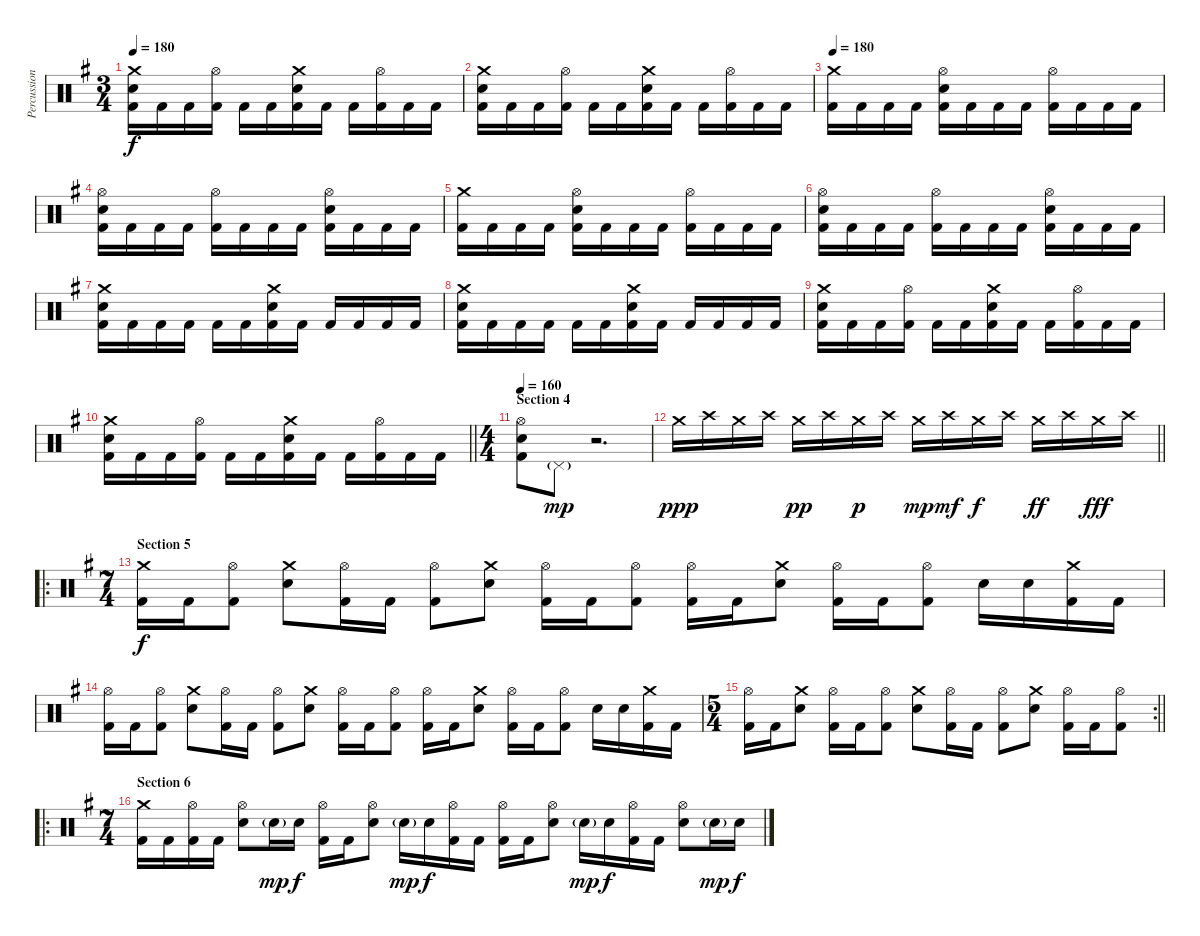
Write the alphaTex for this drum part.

\track ("Percussion" "Percussion") {instrument percussion}
\staff {score}
\articulation defaults
\ts (3 4)
\tempo 180
\clef neutral
\ks eminor
("Crash medium (hit)" "Electric Snare (hit)" "Kick (hit) 2").16{dy f} "Kick (hit) 2".16 "Kick (hit) 2".16 ("Hi-Hat (open)" "Kick (hit) 2").16 "Kick (hit) 2".16 "Kick (hit) 2".16 ("Crash medium (hit)" "Electric Snare (hit)" "Kick (hit) 2").16 "Kick (hit) 2".16 "Kick (hit) 2".16 ("Hi-Hat (open)" "Kick (hit) 2").16 "Kick (hit) 2".16 "Kick (hit) 2".16 |
("Crash medium (hit)" "Electric Snare (hit)" "Kick (hit) 2").16 "Kick (hit) 2".16 "Kick (hit) 2".16 ("Hi-Hat (open)" "Kick (hit) 2").16 "Kick (hit) 2".16 "Kick (hit) 2".16 ("Crash medium (hit)" "Electric Snare (hit)" "Kick (hit) 2").16 "Kick (hit) 2".16 "Kick (hit) 2".16 ("Hi-Hat (open)" "Kick (hit) 2").16 "Kick (hit) 2".16 "Kick (hit) 2".16 |
\tempo 180
("Crash medium (hit)" "Kick (hit) 2").16 "Kick (hit) 2".16 "Kick (hit) 2".16 "Kick (hit) 2".16 ("Hi-Hat (open)" "Electric Snare (hit)" "Kick (hit) 2").16 "Kick (hit) 2".16 "Kick (hit) 2".16 "Kick (hit) 2".16 ("Hi-Hat (open)" "Kick (hit) 2").16 "Kick (hit) 2".16 "Kick (hit) 2".16 "Kick (hit) 2".16 |
("Hi-Hat (open)" "Electric Snare (hit)" "Kick (hit) 2").16 "Kick (hit) 2".16 "Kick (hit) 2".16 "Kick (hit) 2".16 ("Hi-Hat (open)" "Kick (hit) 2").16 "Kick (hit) 2".16 "Kick (hit) 2".16 "Kick (hit) 2".16 ("Hi-Hat (open)" "Electric Snare (hit)" "Kick (hit) 2").16 "Kick (hit) 2".16 "Kick (hit) 2".16 "Kick (hit) 2".16 |
("Crash medium (hit)" "Kick (hit) 2").16 "Kick (hit) 2".16 "Kick (hit) 2".16 "Kick (hit) 2".16 ("Hi-Hat (open)" "Electric Snare (hit)" "Kick (hit) 2").16 "Kick (hit) 2".16 "Kick (hit) 2".16 "Kick (hit) 2".16 ("Hi-Hat (open)" "Kick (hit) 2").16 "Kick (hit) 2".16 "Kick (hit) 2".16 "Kick (hit) 2".16 |
("Hi-Hat (open)" "Electric Snare (hit)" "Kick (hit) 2").16 "Kick (hit) 2".16 "Kick (hit) 2".16 "Kick (hit) 2".16 ("Hi-Hat (open)" "Kick (hit) 2").16 "Kick (hit) 2".16 "Kick (hit) 2".16 "Kick (hit) 2".16 ("Hi-Hat (open)" "Electric Snare (hit)" "Kick (hit) 2").16 "Kick (hit) 2".16 "Kick (hit) 2".16 "Kick (hit) 2".16 |
("Crash medium (hit)" "Electric Snare (hit)" "Kick (hit) 2").16 "Kick (hit) 2".16 "Kick (hit) 2".16 "Kick (hit) 2".16 "Kick (hit) 2".16 "Kick (hit) 2".16 ("Crash medium (hit)" "Electric Snare (hit)" "Kick (hit) 2").16 "Kick (hit) 2".16 "Kick (hit) 2".16 "Kick (hit) 2".16 "Kick (hit) 2".16 "Kick (hit) 2".16 |
("Crash medium (hit)" "Electric Snare (hit)" "Kick (hit) 2").16 "Kick (hit) 2".16 "Kick (hit) 2".16 "Kick (hit) 2".16 "Kick (hit) 2".16 "Kick (hit) 2".16 ("Crash medium (hit)" "Electric Snare (hit)" "Kick (hit) 2").16 "Kick (hit) 2".16 "Kick (hit) 2".16 "Kick (hit) 2".16 "Kick (hit) 2".16 "Kick (hit) 2".16 |
("Crash medium (hit)" "Electric Snare (hit)" "Kick (hit) 2").16 "Kick (hit) 2".16 "Kick (hit) 2".16 ("Hi-Hat (open)" "Kick (hit) 2").16 "Kick (hit) 2".16 "Kick (hit) 2".16 ("Crash medium (hit)" "Electric Snare (hit)" "Kick (hit) 2").16 "Kick (hit) 2".16 "Kick (hit) 2".16 ("Hi-Hat (open)" "Kick (hit) 2").16 "Kick (hit) 2".16 "Kick (hit) 2".16 |
\barLineRight lightlight
("Crash medium (hit)" "Electric Snare (hit)" "Kick (hit) 2").16 "Kick (hit) 2".16 "Kick (hit) 2".16 ("Hi-Hat (open)" "Kick (hit) 2").16 "Kick (hit) 2".16 "Kick (hit) 2".16 ("Crash medium (hit)" "Electric Snare (hit)" "Kick (hit) 2").16 "Kick (hit) 2".16 "Kick (hit) 2".16 ("Hi-Hat (open)" "Kick (hit) 2").16 "Kick (hit) 2".16 "Kick (hit) 2".16 |
\ts (4 4)
\section ("" "Section 4")
\tempo 160
("Hi-Hat (open)" "Electric Snare (hit)" "Kick (hit) 2").8 "Pedal Hi-Hat (hit)"{g}.8{dy mp} r.2{d} |
\barLineRight lightlight "Crash medium (hit)".16{dy ppp} "Crash high (hit)".16 "Crash medium (hit)".16 "Crash high (hit)".16 "Crash medium (hit)".16{dy pp} "Crash high (hit)".16 "Crash medium (hit)".16{dy p} "Crash high (hit)".16 "Crash medium (hit)".16{dy mp} "Crash high (hit)".16{dy mf} "Crash medium (hit)".16{dy f} "Crash high (hit)".16 "Crash medium (hit)".16{dy ff} "Crash high (hit)".16 "Crash medium (hit)".16{dy fff} "Crash high (hit)".16
|
\ro
\ts (7 4)
\section ("" "Section 5")
("Crash medium (hit)" "Kick (hit) 2").16{dy f} "Kick (hit) 2".16 ("Hi-Hat (open)" "Kick (hit) 2").8 ("Crash medium (hit)" "Electric Snare (hit)").8 ("Hi-Hat (open)" "Kick (hit) 2").16 "Kick (hit) 2".16 ("Hi-Hat (open)" "Kick (hit) 2").8 ("Crash medium (hit)" "Electric Snare (hit)").8 ("Hi-Hat (open)" "Kick (hit) 2").16 "Kick (hit) 2".16 ("Hi-Hat (open)" "Kick (hit) 2").8 ("Hi-Hat (open)" "Kick (hit) 2").16 "Kick (hit) 2".16 ("Crash medium (hit)" "Electric Snare (hit)").8 ("Hi-Hat (open)" "Kick (hit) 2").16 "Kick (hit) 2".16 ("Hi-Hat (open)" "Kick (hit) 2").8 "Electric Snare (hit)".16 "Electric Snare (hit)".16 ("Crash medium (hit)" "Kick (hit) 2").16 "Kick (hit) 2".16 |
("Hi-Hat (open)" "Kick (hit) 2").16 "Kick (hit) 2".16 ("Hi-Hat (open)" "Kick (hit) 2").8 ("Crash medium (hit)" "Electric Snare (hit)").8 ("Hi-Hat (open)" "Kick (hit) 2").16 "Kick (hit) 2".16 ("Hi-Hat (open)" "Kick (hit) 2").8 ("Crash medium (hit)" "Electric Snare (hit)").8 ("Hi-Hat (open)" "Kick (hit) 2").16 "Kick (hit) 2".16 ("Hi-Hat (open)" "Kick (hit) 2").8 ("Hi-Hat (open)" "Kick (hit) 2").16 "Kick (hit) 2".16 ("Crash medium (hit)" "Electric Snare (hit)").8 ("Hi-Hat (open)" "Kick (hit) 2").16 "Kick (hit) 2".16 ("Hi-Hat (open)" "Kick (hit) 2").8 "Electric Snare (hit)".16 "Electric Snare (hit)".16 ("Crash medium (hit)" "Kick (hit) 2").16 "Kick (hit) 2".16 |
\rc 2
\ts (5 4)
\barLineRight lightlight
("Hi-Hat (open)" "Kick (hit) 2").16 "Kick (hit) 2".16 ("Crash medium (hit)" "Electric Snare (hit)").8 ("Hi-Hat (open)" "Kick (hit) 2").16 "Kick (hit) 2".16 ("Hi-Hat (open)" "Kick (hit) 2").8 ("Crash medium (hit)" "Electric Snare (hit)").8 ("Hi-Hat (open)" "Kick (hit) 2").16 "Kick (hit) 2".16 ("Hi-Hat (open)" "Kick (hit) 2").8 ("Crash medium (hit)" "Electric Snare (hit)").8 ("Hi-Hat (open)" "Kick (hit) 2").16 "Kick (hit) 2".16 ("Hi-Hat (open)" "Kick (hit) 2").8 |
\ro
\ts (7 4)
\section ("" "Section 6")
("Crash medium (hit)" "Kick (hit) 2").16 "Kick (hit) 2".16 ("Hi-Hat (open)" "Kick (hit) 2").16 "Kick (hit) 2".16 ("Hi-Hat (open)" "Electric Snare (hit)").8 "Electric Snare (hit)"{g}.16{dy mp} "Electric Snare (hit)".16{dy f} ("Hi-Hat (open)" "Kick (hit) 2").16 "Kick (hit) 2".16 ("Hi-Hat (open)" "Electric Snare (hit)").8 "Electric Snare (hit)"{g}.16{dy mp} "Electric Snare (hit)".16{dy f} ("Hi-Hat (open)" "Kick (hit) 2").16 "Kick (hit) 2".16 ("Hi-Hat (open)" "Kick (hit) 2").16 "Kick (hit) 2".16 ("Hi-Hat (open)" "Electric Snare (hit)").8 "Electric Snare (hit)"{g}.16{dy mp} "Electric Snare (hit)".16{dy f} ("Hi-Hat (open)" "Kick (hit) 2").16 "Kick (hit) 2".16 ("Hi-Hat (open)" "Electric Snare (hit)").8 "Electric Snare (hit)"{g}.16{dy mp} "Electric Snare (hit)".16{dy f}
